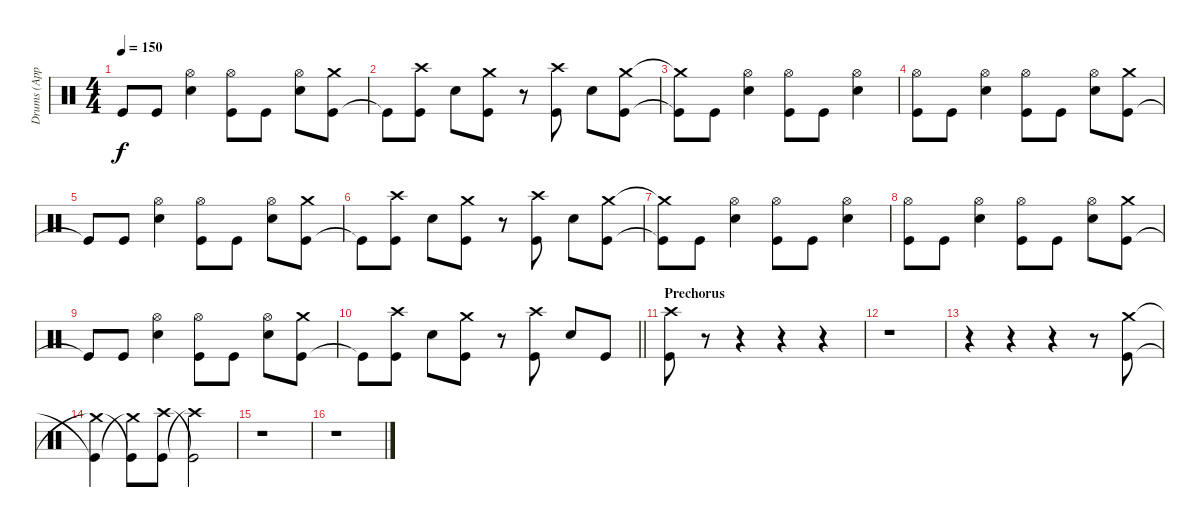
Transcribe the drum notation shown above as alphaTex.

\track ("Drums (Appelhans/Durst)" "Drums (App") {instrument percussion}
\staff {score}
\articulation defaults
\ts (4 4)
\tempo 150
\clef neutral
\ks c "Kick (hit)"{t}.8{dy f} "Kick (hit)".8
("Snare (hit) 2" "Hi-Hat (open)").4 ("Kick (hit)" "Hi-Hat (open)").8 "Kick (hit)".8 ("Snare (hit) 2" "Hi-Hat (open)").8 ("Kick (hit)" "Crash medium (hit)").8 |
"Kick (hit)"{t}.8 ("Kick (hit)" "Crash high (hit)").8 "Snare (hit) 2".8 ("Kick (hit)" "Crash medium (hit)").8 r.8 ("Kick (hit)" "Crash high (hit)").8 "Snare (hit) 2".8 ("Kick (hit)" "Crash medium (hit)").8 |
("Kick (hit)"{t} "Crash medium (hit)"{t}).8 "Kick (hit)".8 ("Snare (hit) 2" "Hi-Hat (open)").4 ("Kick (hit)" "Hi-Hat (open)").8 "Kick (hit)".8 ("Snare (hit) 2" "Hi-Hat (open)").4 |
("Kick (hit)" "Hi-Hat (open)").8 "Kick (hit)".8 ("Snare (hit) 2" "Hi-Hat (open)").4 ("Kick (hit)" "Hi-Hat (open)").8 "Kick (hit)".8 ("Snare (hit) 2" "Hi-Hat (open)").8 ("Kick (hit)" "Crash medium (hit)").8 |
"Kick (hit)"{t}.8 "Kick (hit)".8 ("Snare (hit) 2" "Hi-Hat (open)").4 ("Kick (hit)" "Hi-Hat (open)").8 "Kick (hit)".8 ("Snare (hit) 2" "Hi-Hat (open)").8 ("Kick (hit)" "Crash medium (hit)").8 |
"Kick (hit)"{t}.8 ("Kick (hit)" "Crash high (hit)").8 "Snare (hit) 2".8 ("Kick (hit)" "Crash medium (hit)").8 r.8 ("Kick (hit)" "Crash high (hit)").8 "Snare (hit) 2".8 ("Kick (hit)" "Crash medium (hit)").8 |
("Kick (hit)"{t} "Crash medium (hit)"{t}).8 "Kick (hit)".8 ("Snare (hit) 2" "Hi-Hat (open)").4 ("Kick (hit)" "Hi-Hat (open)").8 "Kick (hit)".8 ("Snare (hit) 2" "Hi-Hat (open)").4 |
("Kick (hit)" "Hi-Hat (open)").8 "Kick (hit)".8 ("Snare (hit) 2" "Hi-Hat (open)").4 ("Kick (hit)" "Hi-Hat (open)").8 "Kick (hit)".8 ("Snare (hit) 2" "Hi-Hat (open)").8 ("Kick (hit)" "Crash medium (hit)").8 |
"Kick (hit)"{t}.8 "Kick (hit)".8 ("Snare (hit) 2" "Hi-Hat (open)").4 ("Kick (hit)" "Hi-Hat (open)").8 "Kick (hit)".8 ("Snare (hit) 2" "Hi-Hat (open)").8 ("Kick (hit)" "Crash medium (hit)").8 |
\barLineRight lightlight "Kick (hit)"{t}.8
("Kick (hit)" "Crash high (hit)").8 "Snare (hit) 2".8 ("Kick (hit)" "Crash medium (hit)").8 r.8 ("Kick (hit)" "Crash high (hit)").8 "Snare (hit) 2".8 "Kick (hit)".8 |
\section ("" "Prechorus")
("Kick (hit)" "Crash high (hit)").8 r.8 r.4 r.4 r.4 |
r.1 |
r.4 r.4 r.4 r.8 ("Kick (hit)" "Crash medium (hit)").8 |
("Crash medium (hit)"{t} "Kick (hit)"{t}).4 ("Kick (hit)"{t} "Crash medium (hit)"{t}).8 ("Crash high (hit)" "Kick (hit)").8 ("Kick (hit)"{t} "Crash high (hit)"{t}).2 |
r.1 |
r.1
